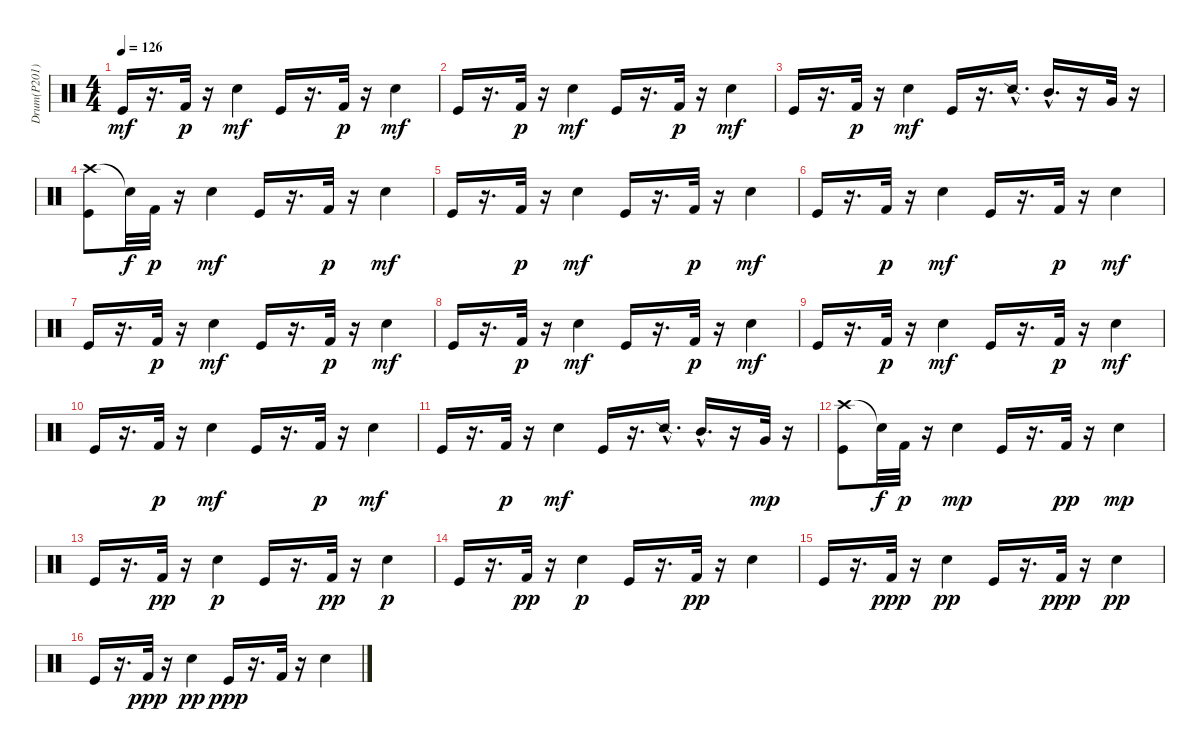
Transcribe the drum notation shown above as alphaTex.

\track ("Drum(P201)" "Drum(P201)") {instrument percussion}
\staff {score}
\articulation defaults
\ts (4 4)
\tempo 126
\clef neutral
\ks c "Kick (hit)".16{dy mf}
r.16{d} "Kick (hit) 2".32{dy p} r.16 "Snare (hit) 2".4{dy mf} "Kick (hit)".16 r.16{d} "Kick (hit) 2".32{dy p} r.16 "Snare (hit) 2".4{dy mf} |
"Kick (hit)".16 r.16{d} "Kick (hit) 2".32{dy p} r.16 "Snare (hit) 2".4{dy mf} "Kick (hit)".16 r.16{d} "Kick (hit) 2".32{dy p} r.16 "Snare (hit) 2".4{dy mf} |
"Kick (hit)".16 r.16{d} "Kick (hit) 2".32{dy p} r.16 "Snare (hit) 2".4{dy mf} "Kick (hit)".16 r.16{d} "Snare (side stick) 2"{hac}.16{d} "Mid Tom (hit)"{hac}.16{d} r.16 "Very Low Tom (hit)".32 r.16 |
("Crash high (hit)" "Kick (hit)").8 "Snare (hit)"{t}.32{dy f} "Kick (hit) 2".32{dy p} r.16 "Snare (hit) 2".4{dy mf} "Kick (hit)".16 r.16{d} "Kick (hit) 2".32{dy p} r.16 "Snare (hit) 2".4{dy mf} |
"Kick (hit)".16 r.16{d} "Kick (hit) 2".32{dy p} r.16 "Snare (hit) 2".4{dy mf} "Kick (hit)".16 r.16{d} "Kick (hit) 2".32{dy p} r.16 "Snare (hit) 2".4{dy mf} |
"Kick (hit)".16 r.16{d} "Kick (hit) 2".32{dy p} r.16 "Snare (hit) 2".4{dy mf} "Kick (hit)".16 r.16{d} "Kick (hit) 2".32{dy p} r.16 "Snare (hit) 2".4{dy mf} |
"Kick (hit)".16 r.16{d} "Kick (hit) 2".32{dy p} r.16 "Snare (hit) 2".4{dy mf} "Kick (hit)".16 r.16{d} "Kick (hit) 2".32{dy p} r.16 "Snare (hit) 2".4{dy mf} |
"Kick (hit)".16 r.16{d} "Kick (hit) 2".32{dy p} r.16 "Snare (hit) 2".4{dy mf} "Kick (hit)".16 r.16{d} "Kick (hit) 2".32{dy p} r.16 "Snare (hit) 2".4{dy mf} |
"Kick (hit)".16 r.16{d} "Kick (hit) 2".32{dy p} r.16 "Snare (hit) 2".4{dy mf} "Kick (hit)".16 r.16{d} "Kick (hit) 2".32{dy p} r.16 "Snare (hit) 2".4{dy mf} |
"Kick (hit)".16 r.16{d} "Kick (hit) 2".32{dy p} r.16 "Snare (hit) 2".4{dy mf} "Kick (hit)".16 r.16{d} "Kick (hit) 2".32{dy p} r.16 "Snare (hit) 2".4{dy mf} |
"Kick (hit)".16 r.16{d} "Kick (hit) 2".32{dy p} r.16 "Snare (hit) 2".4{dy mf} "Kick (hit)".16 r.16{d} "Snare (side stick) 2"{hac}.16{d} "Mid Tom (hit)"{hac}.16{d} r.16 "Very Low Tom (hit)".32{dy mp} r.16 |
("Crash high (hit)" "Kick (hit)").8 "Snare (hit)"{t}.32{dy f} "Kick (hit) 2".32{dy p} r.16 "Snare (hit) 2".4{dy mp} "Kick (hit)".16 r.16{d} "Kick (hit) 2".32{dy pp} r.16 "Snare (hit) 2".4{dy mp} |
"Kick (hit)".16 r.16{d} "Kick (hit) 2".32{dy pp} r.16 "Snare (hit) 2".4{dy p} "Kick (hit)".16 r.16{d} "Kick (hit) 2".32{dy pp} r.16 "Snare (hit) 2".4{dy p} |
"Kick (hit)".16 r.16{d} "Kick (hit) 2".32{dy pp} r.16 "Snare (hit) 2".4{dy p} "Kick (hit)".16 r.16{d} "Kick (hit) 2".32{dy pp} r.16 "Snare (hit) 2".4 |
"Kick (hit)".16 r.16{d} "Kick (hit) 2".32{dy ppp} r.16 "Snare (hit) 2".4{dy pp} "Kick (hit)".16 r.16{d} "Kick (hit) 2".32{dy ppp} r.16 "Snare (hit) 2".4{dy pp} |
"Kick (hit)".16 r.16{d} "Kick (hit) 2".32{dy ppp} r.16 "Snare (hit) 2".4{dy pp} "Kick (hit)".16{dy ppp} r.16{d} "Kick (hit) 2".32 r.16 "Snare (hit) 2".4
